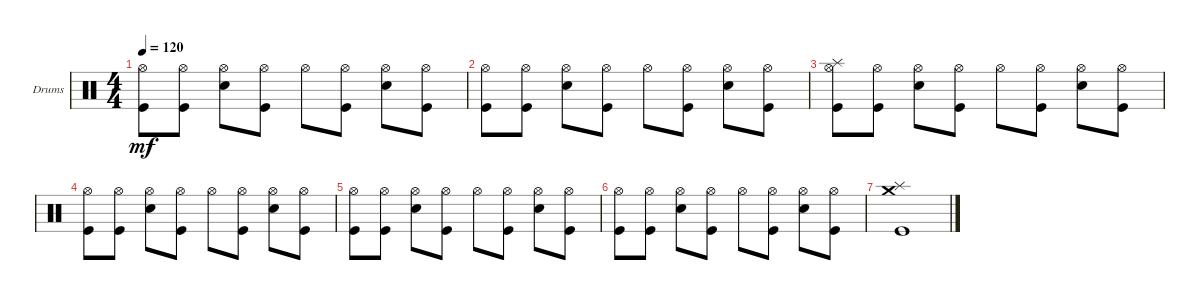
\defaultSystemsLayout 4
\bracketExtendMode groupsimilarinstruments
\firstSystemTrackNameOrientation horizontal
\otherSystemsTrackNameOrientation horizontal
\track ("Drumkit" "Drums") {instrument percussion}
\staff {score}
\articulation defaults
\ts (4 4)
\tempo 120
\clef neutral
\ks c
("Hi-Hat (open)" "Kick (hit)").8{dy mf} ("Hi-Hat (open)" "Kick (hit)").8 ("Hi-Hat (open)" "Snare (hit) 2").8 ("Hi-Hat (open)" "Kick (hit)").8 "Hi-Hat (open)".8 ("Hi-Hat (open)" "Kick (hit)").8 ("Hi-Hat (open)" "Snare (hit) 2").8 ("Hi-Hat (open)" "Kick (hit)").8 |
("Hi-Hat (open)" "Kick (hit)").8 ("Hi-Hat (open)" "Kick (hit)").8 ("Hi-Hat (open)" "Snare (hit) 2").8 ("Hi-Hat (open)" "Kick (hit)").8 "Hi-Hat (open)".8 ("Hi-Hat (open)" "Kick (hit)").8 ("Hi-Hat (open)" "Snare (hit) 2").8 ("Hi-Hat (open)" "Kick (hit)").8 |
("Hi-Hat (open)" "Kick (hit)" "Splash (hit)").8 ("Hi-Hat (open)" "Kick (hit)").8 ("Hi-Hat (open)" "Snare (hit) 2").8 ("Hi-Hat (open)" "Kick (hit)").8 "Hi-Hat (open)".8 ("Hi-Hat (open)" "Kick (hit)").8 ("Hi-Hat (open)" "Snare (hit) 2").8 ("Hi-Hat (open)" "Kick (hit)").8 |
("Hi-Hat (open)" "Kick (hit)").8 ("Hi-Hat (open)" "Kick (hit)").8 ("Hi-Hat (open)" "Snare (hit) 2").8 ("Hi-Hat (open)" "Kick (hit)").8 "Hi-Hat (open)".8 ("Hi-Hat (open)" "Kick (hit)").8 ("Hi-Hat (open)" "Snare (hit) 2").8 ("Hi-Hat (open)" "Kick (hit)").8 |
("Hi-Hat (open)" "Kick (hit)").8 ("Hi-Hat (open)" "Kick (hit)").8 ("Hi-Hat (open)" "Snare (hit) 2").8 ("Hi-Hat (open)" "Kick (hit)").8 "Hi-Hat (open)".8 ("Hi-Hat (open)" "Kick (hit)").8 ("Hi-Hat (open)" "Snare (hit) 2").8 ("Hi-Hat (open)" "Kick (hit)").8 |
("Hi-Hat (open)" "Kick (hit)").8 ("Hi-Hat (open)" "Kick (hit)").8 ("Hi-Hat (open)" "Snare (hit) 2").8 ("Hi-Hat (open)" "Kick (hit)").8 "Hi-Hat (open)".8 ("Hi-Hat (open)" "Kick (hit)").8 ("Hi-Hat (open)" "Snare (hit) 2").8 ("Hi-Hat (open)" "Kick (hit)").8 |
("Splash (hit)" "Crash medium (hit)" "Kick (hit)").1
